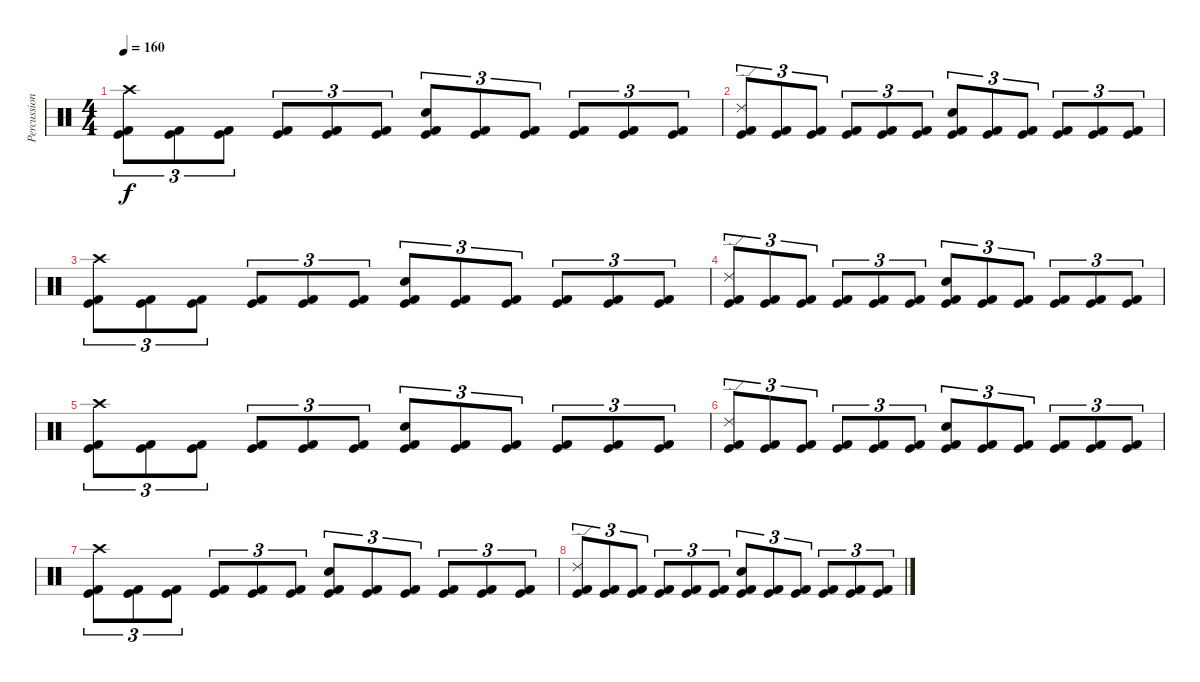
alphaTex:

\track ("Percussion" "Percussion") {instrument percussion}
\staff {score}
\articulation defaults
\ts (4 4)
\tempo 160
\clef neutral
\ks c
("Crash high (hit)" "Kick (hit)" "Kick (hit) 2").8{tu (3 2) dy f} ("Kick (hit)" "Kick (hit) 2").8{tu (3 2)} ("Kick (hit)" "Kick (hit) 2").8{tu (3 2)} ("Kick (hit)" "Kick (hit) 2").8{tu (3 2)} ("Kick (hit)" "Kick (hit) 2").8{tu (3 2)} ("Kick (hit)" "Kick (hit) 2").8{tu (3 2)} ("Kick (hit)" "Electric Snare (hit)" "Kick (hit) 2").8{tu (3 2)} ("Kick (hit)" "Kick (hit) 2").8{tu (3 2)} ("Kick (hit)" "Kick (hit) 2").8{tu (3 2)} ("Kick (hit)" "Kick (hit) 2").8{tu (3 2)} ("Kick (hit)" "Kick (hit) 2").8{tu (3 2)} ("Kick (hit)" "Kick (hit) 2").8{tu (3 2)} |
("Ride (edge) 2" "Kick (hit)" "Kick (hit) 2").8{tu (3 2)} ("Kick (hit)" "Kick (hit) 2").8{tu (3 2)} ("Kick (hit)" "Kick (hit) 2").8{tu (3 2)} ("Kick (hit)" "Kick (hit) 2").8{tu (3 2)} ("Kick (hit)" "Kick (hit) 2").8{tu (3 2)} ("Kick (hit)" "Kick (hit) 2").8{tu (3 2)} ("Kick (hit)" "Electric Snare (hit)" "Kick (hit) 2").8{tu (3 2)} ("Kick (hit)" "Kick (hit) 2").8{tu (3 2)} ("Kick (hit)" "Kick (hit) 2").8{tu (3 2)} ("Kick (hit)" "Kick (hit) 2").8{tu (3 2)} ("Kick (hit)" "Kick (hit) 2").8{tu (3 2)} ("Kick (hit)" "Kick (hit) 2").8{tu (3 2)} |
("Crash high (hit)" "Kick (hit)" "Kick (hit) 2").8{tu (3 2)} ("Kick (hit)" "Kick (hit) 2").8{tu (3 2)} ("Kick (hit)" "Kick (hit) 2").8{tu (3 2)} ("Kick (hit)" "Kick (hit) 2").8{tu (3 2)} ("Kick (hit)" "Kick (hit) 2").8{tu (3 2)} ("Kick (hit)" "Kick (hit) 2").8{tu (3 2)} ("Kick (hit)" "Electric Snare (hit)" "Kick (hit) 2").8{tu (3 2)} ("Kick (hit)" "Kick (hit) 2").8{tu (3 2)} ("Kick (hit)" "Kick (hit) 2").8{tu (3 2)} ("Kick (hit)" "Kick (hit) 2").8{tu (3 2)} ("Kick (hit)" "Kick (hit) 2").8{tu (3 2)} ("Kick (hit)" "Kick (hit) 2").8{tu (3 2)} |
("Ride (edge) 2" "Kick (hit)" "Kick (hit) 2").8{tu (3 2)} ("Kick (hit)" "Kick (hit) 2").8{tu (3 2)} ("Kick (hit)" "Kick (hit) 2").8{tu (3 2)} ("Kick (hit)" "Kick (hit) 2").8{tu (3 2)} ("Kick (hit)" "Kick (hit) 2").8{tu (3 2)} ("Kick (hit)" "Kick (hit) 2").8{tu (3 2)} ("Kick (hit)" "Electric Snare (hit)" "Kick (hit) 2").8{tu (3 2)} ("Kick (hit)" "Kick (hit) 2").8{tu (3 2)} ("Kick (hit)" "Kick (hit) 2").8{tu (3 2)} ("Kick (hit)" "Kick (hit) 2").8{tu (3 2)} ("Kick (hit)" "Kick (hit) 2").8{tu (3 2)} ("Kick (hit)" "Kick (hit) 2").8{tu (3 2)} |
("Crash high (hit)" "Kick (hit)" "Kick (hit) 2").8{tu (3 2)} ("Kick (hit)" "Kick (hit) 2").8{tu (3 2)} ("Kick (hit)" "Kick (hit) 2").8{tu (3 2)} ("Kick (hit)" "Kick (hit) 2").8{tu (3 2)} ("Kick (hit)" "Kick (hit) 2").8{tu (3 2)} ("Kick (hit)" "Kick (hit) 2").8{tu (3 2)} ("Kick (hit)" "Electric Snare (hit)" "Kick (hit) 2").8{tu (3 2)} ("Kick (hit)" "Kick (hit) 2").8{tu (3 2)} ("Kick (hit)" "Kick (hit) 2").8{tu (3 2)} ("Kick (hit)" "Kick (hit) 2").8{tu (3 2)} ("Kick (hit)" "Kick (hit) 2").8{tu (3 2)} ("Kick (hit)" "Kick (hit) 2").8{tu (3 2)} |
("Ride (edge) 2" "Kick (hit)" "Kick (hit) 2").8{tu (3 2)} ("Kick (hit)" "Kick (hit) 2").8{tu (3 2)} ("Kick (hit)" "Kick (hit) 2").8{tu (3 2)} ("Kick (hit)" "Kick (hit) 2").8{tu (3 2)} ("Kick (hit)" "Kick (hit) 2").8{tu (3 2)} ("Kick (hit)" "Kick (hit) 2").8{tu (3 2)} ("Kick (hit)" "Electric Snare (hit)" "Kick (hit) 2").8{tu (3 2)} ("Kick (hit)" "Kick (hit) 2").8{tu (3 2)} ("Kick (hit)" "Kick (hit) 2").8{tu (3 2)} ("Kick (hit)" "Kick (hit) 2").8{tu (3 2)} ("Kick (hit)" "Kick (hit) 2").8{tu (3 2)} ("Kick (hit)" "Kick (hit) 2").8{tu (3 2)} |
("Crash high (hit)" "Kick (hit)" "Kick (hit) 2").8{tu (3 2)} ("Kick (hit)" "Kick (hit) 2").8{tu (3 2)} ("Kick (hit)" "Kick (hit) 2").8{tu (3 2)} ("Kick (hit)" "Kick (hit) 2").8{tu (3 2)} ("Kick (hit)" "Kick (hit) 2").8{tu (3 2)} ("Kick (hit)" "Kick (hit) 2").8{tu (3 2)} ("Kick (hit)" "Electric Snare (hit)" "Kick (hit) 2").8{tu (3 2)} ("Kick (hit)" "Kick (hit) 2").8{tu (3 2)} ("Kick (hit)" "Kick (hit) 2").8{tu (3 2)} ("Kick (hit)" "Kick (hit) 2").8{tu (3 2)} ("Kick (hit)" "Kick (hit) 2").8{tu (3 2)} ("Kick (hit)" "Kick (hit) 2").8{tu (3 2)} |
("Ride (edge) 2" "Kick (hit)" "Kick (hit) 2").8{tu (3 2)} ("Kick (hit)" "Kick (hit) 2").8{tu (3 2)} ("Kick (hit)" "Kick (hit) 2").8{tu (3 2)} ("Kick (hit)" "Kick (hit) 2").8{tu (3 2)} ("Kick (hit)" "Kick (hit) 2").8{tu (3 2)} ("Kick (hit)" "Kick (hit) 2").8{tu (3 2)} ("Kick (hit)" "Electric Snare (hit)" "Kick (hit) 2").8{tu (3 2)} ("Kick (hit)" "Kick (hit) 2").8{tu (3 2)} ("Kick (hit)" "Kick (hit) 2").8{tu (3 2)} ("Kick (hit)" "Kick (hit) 2").8{tu (3 2)} ("Kick (hit)" "Kick (hit) 2").8{tu (3 2)} ("Kick (hit)" "Kick (hit) 2").8{tu (3 2)}
